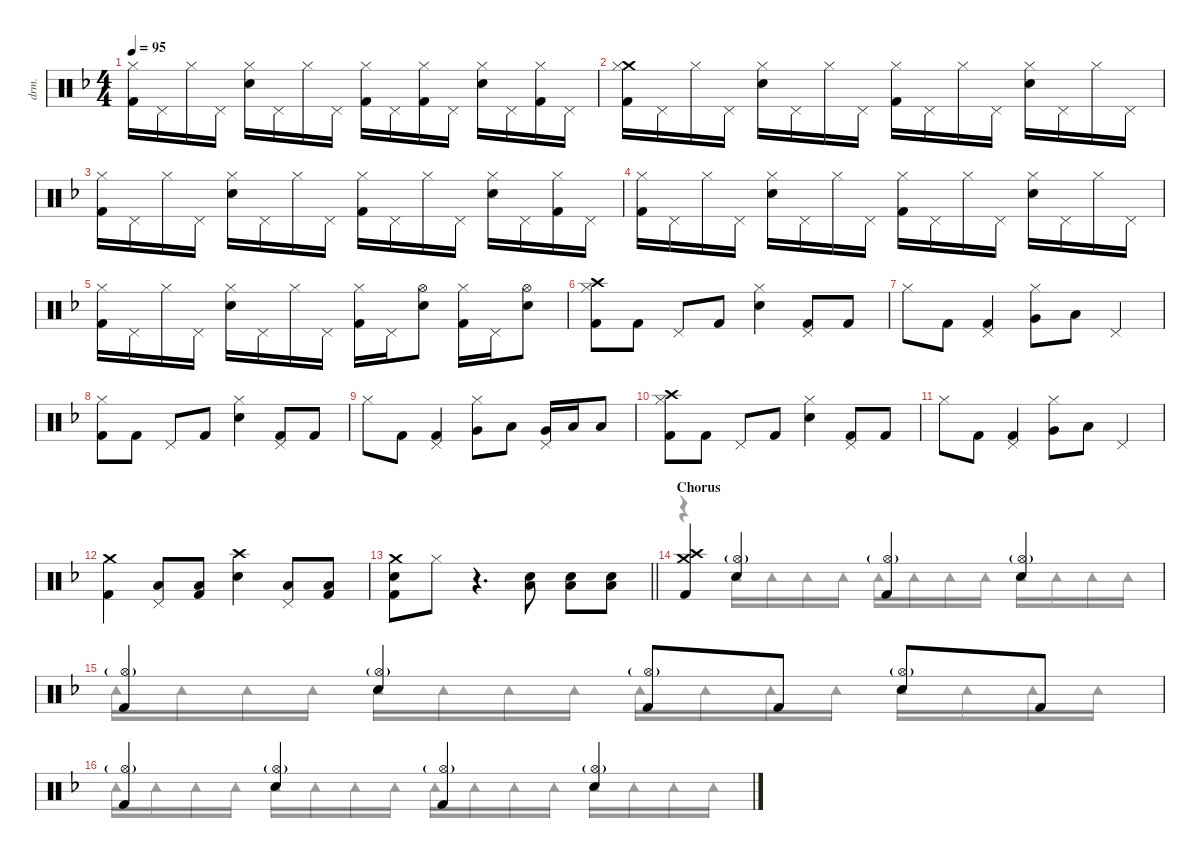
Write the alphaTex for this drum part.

\defaultSystemsLayout 4
\hideDynamics
\bracketExtendMode nobrackets
\track ("Jukka" "drm.") {instrument percussion}
\staff {score}
\articulation defaults
\voice
\ts (4 4)
\tempo 95
\clef neutral
\ks f
("Hi-Hat (closed)"{acc forcenatural} "Kick (hit) 2"{acc forcenatural}).16{dy mf} "Pedal Hi-Hat (hit)"{acc forcenatural}.16{dy mp} "Hi-Hat (closed)"{acc forcenatural}.16{dy mf} "Pedal Hi-Hat (hit)"{acc forcenatural}.16{dy mp} ("Hi-Hat (closed)"{acc forcenatural} "Snare (hit) 2"{acc forcenatural}).16{dy mf} "Pedal Hi-Hat (hit)"{acc forcenatural}.16{dy mp} "Hi-Hat (closed)"{acc forcenatural}.16{dy mf} "Pedal Hi-Hat (hit)"{acc forcenatural}.16{dy mp} ("Hi-Hat (closed)"{acc forcenatural} "Kick (hit) 2"{acc forcenatural}).16{dy mf} "Pedal Hi-Hat (hit)"{acc forcenatural}.16{dy mp} ("Hi-Hat (closed)"{acc forcenatural} "Kick (hit) 2"{acc forcenatural}).16{dy mf} "Pedal Hi-Hat (hit)"{acc forcenatural}.16{dy mp} ("Hi-Hat (closed)"{acc forcenatural} "Snare (hit) 2"{acc forcenatural}).16{dy mf} "Pedal Hi-Hat (hit)"{acc forcenatural}.16{dy mp} ("Hi-Hat (closed)"{acc forcenatural} "Kick (hit) 2"{acc forcenatural}).16{dy mf} "Pedal Hi-Hat (hit)"{acc forcenatural}.16{dy mp} |
("Crash medium (hit)"{acc forcenatural} "Hi-Hat (closed)"{acc forcenatural} "Kick (hit) 2"{acc forcenatural}).16{dy mf} "Pedal Hi-Hat (hit)"{acc forcenatural}.16{dy mp} "Hi-Hat (closed)"{acc forcenatural}.16{dy mf} "Pedal Hi-Hat (hit)"{acc forcenatural}.16{dy mp} ("Hi-Hat (closed)"{acc forcenatural} "Snare (hit) 2"{acc forcenatural}).16{dy mf} "Pedal Hi-Hat (hit)"{acc forcenatural}.16{dy mp} "Hi-Hat (closed)"{acc forcenatural}.16{dy mf} "Pedal Hi-Hat (hit)"{acc forcenatural}.16{dy mp} ("Hi-Hat (closed)"{acc forcenatural} "Kick (hit) 2"{acc forcenatural}).16{dy mf} "Pedal Hi-Hat (hit)"{acc forcenatural}.16{dy mp} "Hi-Hat (closed)"{acc forcenatural}.16{dy mf} "Pedal Hi-Hat (hit)"{acc forcenatural}.16{dy mp} ("Hi-Hat (closed)"{acc forcenatural} "Snare (hit) 2"{acc forcenatural}).16{dy mf} "Pedal Hi-Hat (hit)"{acc forcenatural}.16{dy mp} "Hi-Hat (closed)"{acc forcenatural}.16{dy mf} "Pedal Hi-Hat (hit)"{acc forcenatural}.16{dy mp} |
("Hi-Hat (closed)"{acc forcenatural} "Kick (hit) 2"{acc forcenatural}).16{dy mf} "Pedal Hi-Hat (hit)"{acc forcenatural}.16{dy mp} "Hi-Hat (closed)"{acc forcenatural}.16{dy mf} "Pedal Hi-Hat (hit)"{acc forcenatural}.16{dy mp} ("Hi-Hat (closed)"{acc forcenatural} "Snare (hit) 2"{acc forcenatural}).16{dy mf} "Pedal Hi-Hat (hit)"{acc forcenatural}.16{dy mp} "Hi-Hat (closed)"{acc forcenatural}.16{dy mf} "Pedal Hi-Hat (hit)"{acc forcenatural}.16{dy mp} ("Hi-Hat (closed)"{acc forcenatural} "Kick (hit) 2"{acc forcenatural}).16{dy mf} "Pedal Hi-Hat (hit)"{acc forcenatural}.16{dy mp} "Hi-Hat (closed)"{acc forcenatural}.16{dy mf} "Pedal Hi-Hat (hit)"{acc forcenatural}.16{dy mp} ("Hi-Hat (closed)"{acc forcenatural} "Snare (hit) 2"{acc forcenatural}).16{dy mf} "Pedal Hi-Hat (hit)"{acc forcenatural}.16{dy mp} ("Hi-Hat (closed)"{acc forcenatural} "Kick (hit) 2"{acc forcenatural}).16{dy mf} "Pedal Hi-Hat (hit)"{acc forcenatural}.16{dy mp} |
("Hi-Hat (closed)"{acc forcenatural} "Kick (hit) 2"{acc forcenatural}).16{dy mf} "Pedal Hi-Hat (hit)"{acc forcenatural}.16{dy mp} "Hi-Hat (closed)"{acc forcenatural}.16{dy mf} "Pedal Hi-Hat (hit)"{acc forcenatural}.16{dy mp} ("Hi-Hat (closed)"{acc forcenatural} "Snare (hit) 2"{acc forcenatural}).16{dy mf} "Pedal Hi-Hat (hit)"{acc forcenatural}.16{dy mp} "Hi-Hat (closed)"{acc forcenatural}.16{dy mf} "Pedal Hi-Hat (hit)"{acc forcenatural}.16{dy mp} ("Hi-Hat (closed)"{acc forcenatural} "Kick (hit) 2"{acc forcenatural}).16{dy mf} "Pedal Hi-Hat (hit)"{acc forcenatural}.16{dy mp} "Hi-Hat (closed)"{acc forcenatural}.16{dy mf} "Pedal Hi-Hat (hit)"{acc forcenatural}.16{dy mp} ("Hi-Hat (closed)"{acc forcenatural} "Snare (hit) 2"{acc forcenatural}).16{dy mf} "Pedal Hi-Hat (hit)"{acc forcenatural}.16{dy mp} "Hi-Hat (closed)"{acc forcenatural}.16{dy mf} "Pedal Hi-Hat (hit)"{acc forcenatural}.16{dy mp} |
("Hi-Hat (closed)"{acc forcenatural} "Kick (hit) 2"{acc forcenatural}).16{dy mf} "Pedal Hi-Hat (hit)"{acc forcenatural}.16{dy mp} "Hi-Hat (closed)"{acc forcenatural}.16{dy mf} "Pedal Hi-Hat (hit)"{acc forcenatural}.16{dy mp} ("Hi-Hat (closed)"{acc forcenatural} "Snare (hit) 2"{acc forcenatural}).16{dy mf} "Pedal Hi-Hat (hit)"{acc forcenatural}.16{dy mp} "Hi-Hat (closed)"{acc forcenatural}.16{dy mf} "Pedal Hi-Hat (hit)"{acc forcenatural}.16{dy mp} ("Hi-Hat (closed)"{acc forcenatural} "Kick (hit) 2"{acc forcenatural}).16{dy mf} "Pedal Hi-Hat (hit)"{acc forcenatural}.16{dy mp} ("Hi-Hat (open)"{acc forcenatural} "Snare (hit) 2"{acc forcenatural}).8{dy f} ("Hi-Hat (closed)"{acc forcenatural} "Kick (hit) 2"{acc forcenatural}).16 "Pedal Hi-Hat (hit)"{acc forcenatural}.16{dy mf} ("Hi-Hat (open)"{acc forcenatural} "Snare (hit) 2"{acc forcenatural}).8{dy f} |
("Crash high (hit)"{acc forcenatural} "Hi-Hat (closed)"{acc forcenatural} "Kick (hit) 2"{acc forcenatural}).8{dy mf} "Kick (hit) 2"{acc forcenatural}.8{dy f} "Pedal Hi-Hat (hit)"{acc forcenatural}.8 "Kick (hit) 2"{acc forcenatural}.8 ("Hi-Hat (closed)"{acc forcenatural} "Snare (hit) 2"{acc forcenatural}).4 ("Pedal Hi-Hat (hit)"{acc forcenatural} "Kick (hit) 2"{acc forcenatural}).8 "Kick (hit) 2"{acc forcenatural}.8 |
"Hi-Hat (closed)"{acc forcenatural}.8 "Kick (hit) 2"{acc forcenatural}.8 ("Pedal Hi-Hat (hit)"{acc forcenatural} "Kick (hit) 2"{acc forcenatural}).4 ("Hi-Hat (closed)"{acc forcenatural} "Very Low Tom (hit)"{acc forcenatural}).8 "Low Floor Tom (hit)"{acc forcenatural}.8{dy mf} "Pedal Hi-Hat (hit)"{acc forcenatural}.4{dy f} |
("Hi-Hat (closed)"{acc forcenatural} "Kick (hit) 2"{acc forcenatural}).8 "Kick (hit) 2"{acc forcenatural}.8 "Pedal Hi-Hat (hit)"{acc forcenatural}.8 "Kick (hit) 2"{acc forcenatural}.8 ("Hi-Hat (closed)"{acc forcenatural} "Snare (hit) 2"{acc forcenatural}).4 ("Pedal Hi-Hat (hit)"{acc forcenatural} "Kick (hit) 2"{acc forcenatural}).8 "Kick (hit) 2"{acc forcenatural}.8 |
"Hi-Hat (closed)"{acc forcenatural}.8 "Kick (hit) 2"{acc forcenatural}.8 ("Pedal Hi-Hat (hit)"{acc forcenatural} "Kick (hit) 2"{acc forcenatural}).4 ("Hi-Hat (closed)"{acc forcenatural} "Very Low Tom (hit)"{acc forcenatural}).8 "Low Floor Tom (hit)"{acc forcenatural}.8{dy mf} ("Pedal Hi-Hat (hit)"{acc forcenatural} "Very Low Tom (hit)"{acc forcenatural}).16{dy f} "Low Floor Tom (hit)"{acc forcenatural}.16 "Low Floor Tom (hit)"{acc forcenatural}.8 |
("Crash high (hit)"{acc forcenatural} "Hi-Hat (closed)"{acc forcenatural} "Kick (hit) 2"{acc forcenatural}).8{dy mf} "Kick (hit) 2"{acc forcenatural}.8{dy f} "Pedal Hi-Hat (hit)"{acc forcenatural}.8 "Kick (hit) 2"{acc forcenatural}.8 ("Hi-Hat (closed)"{acc forcenatural} "Snare (hit) 2"{acc forcenatural}).4 ("Pedal Hi-Hat (hit)"{acc forcenatural} "Kick (hit) 2"{acc forcenatural}).8 "Kick (hit) 2"{acc forcenatural}.8 |
"Hi-Hat (closed)"{acc forcenatural}.8 "Kick (hit) 2"{acc forcenatural}.8 ("Pedal Hi-Hat (hit)"{acc forcenatural} "Kick (hit) 2"{acc forcenatural}).4 ("Hi-Hat (closed)"{acc forcenatural} "Very Low Tom (hit)"{acc forcenatural}).8 "Low Floor Tom (hit)"{acc forcenatural}.8{dy mf} "Pedal Hi-Hat (hit)"{acc forcenatural}.4{dy f} |
("Crash medium (hit)"{acc forcenatural} "Kick (hit) 2"{acc forcenatural}).4{dy mf} ("Pedal Hi-Hat (hit)"{acc forcenatural} "Low Floor Tom (hit)"{acc forcenatural}).8{dy f} ("Low Floor Tom (hit)"{acc forcenatural} "Kick (hit) 2"{acc forcenatural}).8{dy mf} ("Crash high (hit)"{acc forcenatural} "Snare (hit) 2"{acc forcenatural}).4 ("Pedal Hi-Hat (hit)"{acc forcenatural} "Low Floor Tom (hit)"{acc forcenatural}).8{dy f} ("Low Floor Tom (hit)"{acc forcenatural} "Kick (hit) 2"{acc forcenatural}).8{dy mf} |
\barLineRight lightlight
("Crash medium (hit)"{acc forcenatural} "Snare (hit) 2"{acc forcenatural} "Kick (hit) 2"{acc forcenatural}).8 "Hi-Hat (closed)"{acc forcenatural}.8 r.4{d} ("Snare (hit) 2"{acc forcenatural} "Low Floor Tom (hit)"{acc forcenatural}).8{dy mp} ("Snare (hit) 2"{acc forcenatural} "Low Floor Tom (hit)"{acc forcenatural}).8{dy mf} ("Snare (hit) 2"{acc forcenatural} "Low Floor Tom (hit)"{acc forcenatural}).8{dy f} |
\section ("" "Chorus")
("Crash high (hit)"{acc forcenatural} "Crash medium (hit)"{acc forcenatural} "Kick (hit) 2"{acc forcenatural}).4 ("Hi-Hat (open)"{g acc forcenatural} "Snare (hit) 2"{acc forcenatural}).4 ("Hi-Hat (open)"{g acc forcenatural} "Kick (hit) 2"{acc forcenatural}).4 ("Hi-Hat (open)"{g acc forcenatural} "Snare (hit) 2"{acc forcenatural}).4 |
("Hi-Hat (open)"{g acc forcenatural} "Kick (hit) 2"{acc forcenatural}).4 ("Hi-Hat (open)"{g acc forcenatural} "Snare (hit) 2"{acc forcenatural}).4 ("Hi-Hat (open)"{g acc forcenatural} "Kick (hit) 2"{acc forcenatural}).8 "Kick (hit) 2"{acc forcenatural}.8 ("Hi-Hat (open)"{g acc forcenatural} "Snare (hit) 2"{acc forcenatural}).8 "Kick (hit) 2"{acc forcenatural}.8 |
("Hi-Hat (open)"{g acc forcenatural} "Kick (hit) 2"{acc forcenatural}).4 ("Hi-Hat (open)"{g acc forcenatural} "Snare (hit) 2"{acc forcenatural}).4 ("Hi-Hat (open)"{g acc forcenatural} "Kick (hit) 2"{acc forcenatural}).4 ("Hi-Hat (open)"{g acc forcenatural} "Snare (hit) 2"{acc forcenatural}).4
\voice
\clef neutral
\ottava regular
\simile none
\ks f
|
|
|
|
|
|
|
|
|
|
|
|
\barLineRight lightlight
|
r.4 "Tambourine (hit)"{acc forcenatural}.16 "Tambourine (hit)"{acc forcenatural}.16 "Tambourine (hit)"{acc forcenatural}.16 "Tambourine (hit)"{acc forcenatural}.16 "Tambourine (hit)"{acc forcenatural}.16 "Tambourine (hit)"{acc forcenatural}.16 "Tambourine (hit)"{acc forcenatural}.16 "Tambourine (hit)"{acc forcenatural}.16 "Tambourine (hit)"{acc forcenatural}.16 "Tambourine (hit)"{acc forcenatural}.16 "Tambourine (hit)"{acc forcenatural}.16 "Tambourine (hit)"{acc forcenatural}.16 |
"Tambourine (hit)"{acc forcenatural}.16 "Tambourine (hit)"{acc forcenatural}.16 "Tambourine (hit)"{acc forcenatural}.16 "Tambourine (hit)"{acc forcenatural}.16 "Tambourine (hit)"{acc forcenatural}.16 "Tambourine (hit)"{acc forcenatural}.16 "Tambourine (hit)"{acc forcenatural}.16 "Tambourine (hit)"{acc forcenatural}.16 "Tambourine (hit)"{acc forcenatural}.16 "Tambourine (hit)"{acc forcenatural}.16 "Tambourine (hit)"{acc forcenatural}.16 "Tambourine (hit)"{acc forcenatural}.16 "Tambourine (hit)"{acc forcenatural}.16 "Tambourine (hit)"{acc forcenatural}.16 "Tambourine (hit)"{acc forcenatural}.16 "Tambourine (hit)"{acc forcenatural}.16 |
"Tambourine (hit)"{acc forcenatural}.16 "Tambourine (hit)"{acc forcenatural}.16 "Tambourine (hit)"{acc forcenatural}.16 "Tambourine (hit)"{acc forcenatural}.16 "Tambourine (hit)"{acc forcenatural}.16 "Tambourine (hit)"{acc forcenatural}.16 "Tambourine (hit)"{acc forcenatural}.16 "Tambourine (hit)"{acc forcenatural}.16 "Tambourine (hit)"{acc forcenatural}.16 "Tambourine (hit)"{acc forcenatural}.16 "Tambourine (hit)"{acc forcenatural}.16 "Tambourine (hit)"{acc forcenatural}.16 "Tambourine (hit)"{acc forcenatural}.16 "Tambourine (hit)"{acc forcenatural}.16 "Tambourine (hit)"{acc forcenatural}.16 "Tambourine (hit)"{acc forcenatural}.16
